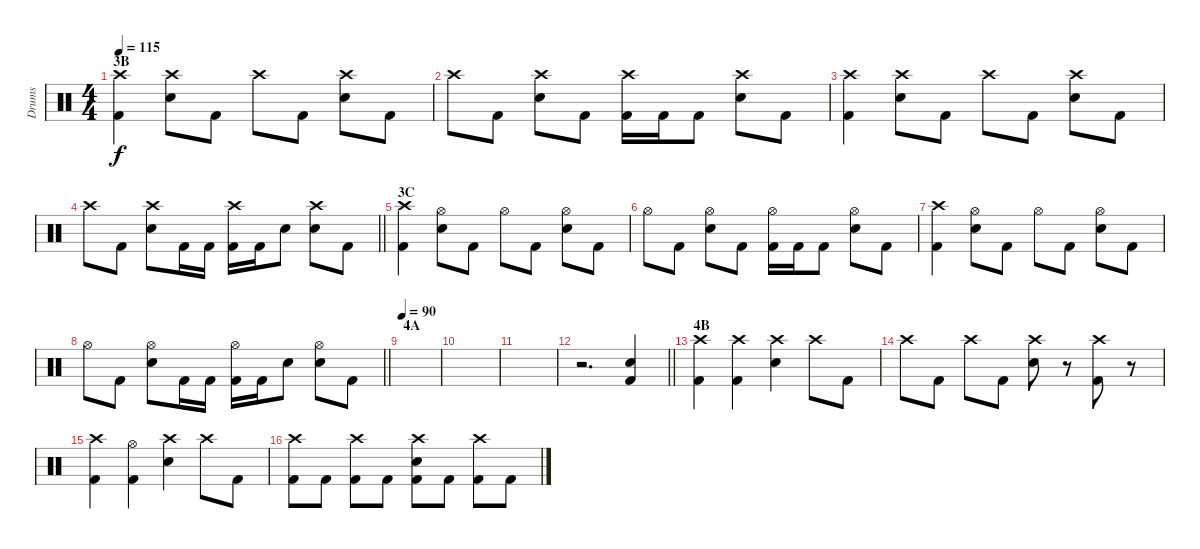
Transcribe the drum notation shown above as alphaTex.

\track ("Drums" "Drums") {instrument percussion}
\staff {score}
\articulation defaults
\ts (4 4)
\section ("" "3B")
\tempo 115
\clef neutral
\ks c
("Crash high (hit)" "Kick (hit) 2").4{dy f} ("Crash high (hit)" "Electric Snare (hit)").8 "Kick (hit) 2".8 "Crash high (hit)".8 "Kick (hit) 2".8 ("Crash high (hit)" "Electric Snare (hit)").8 "Kick (hit) 2".8 |
"Crash high (hit)".8 "Kick (hit) 2".8 ("Crash high (hit)" "Electric Snare (hit)").8 "Kick (hit) 2".8 ("Crash high (hit)" "Kick (hit) 2").16 "Kick (hit) 2".16 "Kick (hit) 2".8 ("Crash high (hit)" "Electric Snare (hit)").8 "Kick (hit) 2".8 |
("Crash high (hit)" "Kick (hit) 2").4 ("Crash high (hit)" "Electric Snare (hit)").8 "Kick (hit) 2".8 "Crash high (hit)".8 "Kick (hit) 2".8 ("Crash high (hit)" "Electric Snare (hit)").8 "Kick (hit) 2".8 |
\barLineRight lightlight "Crash high (hit)".8 "Kick (hit) 2".8
("Crash high (hit)" "Electric Snare (hit)").8 "Kick (hit) 2".16 "Kick (hit) 2".16 ("Crash high (hit)" "Kick (hit) 2").16 "Kick (hit) 2".16 "Electric Snare (hit)".8 ("Crash high (hit)" "Electric Snare (hit)").8 "Kick (hit) 2".8 |
\section ("" "3C")
("Crash high (hit)" "Kick (hit) 2").4 ("Hi-Hat (open)" "Electric Snare (hit)").8 "Kick (hit) 2".8 "Hi-Hat (open)".8 "Kick (hit) 2".8 ("Hi-Hat (open)" "Electric Snare (hit)").8 "Kick (hit) 2".8 |
"Hi-Hat (open)".8 "Kick (hit) 2".8 ("Hi-Hat (open)" "Electric Snare (hit)").8 "Kick (hit) 2".8 ("Hi-Hat (open)" "Kick (hit) 2").16 "Kick (hit) 2".16 "Kick (hit) 2".8 ("Hi-Hat (open)" "Electric Snare (hit)").8 "Kick (hit) 2".8 |
("Crash high (hit)" "Kick (hit) 2").4 ("Hi-Hat (open)" "Electric Snare (hit)").8 "Kick (hit) 2".8 "Hi-Hat (open)".8 "Kick (hit) 2".8 ("Hi-Hat (open)" "Electric Snare (hit)").8 "Kick (hit) 2".8 |
\barLineRight lightlight "Hi-Hat (open)".8 "Kick (hit) 2".8
("Hi-Hat (open)" "Electric Snare (hit)").8 "Kick (hit) 2".16 "Kick (hit) 2".16 ("Hi-Hat (open)" "Kick (hit) 2").16 "Kick (hit) 2".16 "Electric Snare (hit)".8 ("Hi-Hat (open)" "Electric Snare (hit)").8 "Kick (hit) 2".8 |
\section ("" "4A")
\tempo 90
|
|
|
\barLineRight lightlight
r.2{d} ("Electric Snare (hit)" "Kick (hit) 2").4 |
\section ("" "4B")
("Crash high (hit)" "Kick (hit) 2").4 ("Crash high (hit)" "Kick (hit) 2").4 ("Crash high (hit)" "Electric Snare (hit)").4 "Crash high (hit)".8 "Kick (hit) 2".8 |
"Crash high (hit)".8 "Kick (hit) 2".8 "Crash high (hit)".8 "Kick (hit) 2".8 ("Crash high (hit)" "Electric Snare (hit)").8 r.8 ("Crash high (hit)" "Kick (hit) 2").8 r.8 |
("Crash high (hit)" "Kick (hit) 2").4 ("Hi-Hat (open)" "Kick (hit) 2").4 ("Crash high (hit)" "Electric Snare (hit)").4 "Crash high (hit)".8 "Kick (hit) 2".8 |
("Crash high (hit)" "Kick (hit) 2").8 "Kick (hit) 2".8 ("Crash high (hit)" "Kick (hit) 2").8 "Kick (hit) 2".8 ("Crash high (hit)" "Electric Snare (hit)" "Kick (hit) 2").8 "Kick (hit) 2".8 ("Crash high (hit)" "Kick (hit) 2").8 "Kick (hit) 2".8
